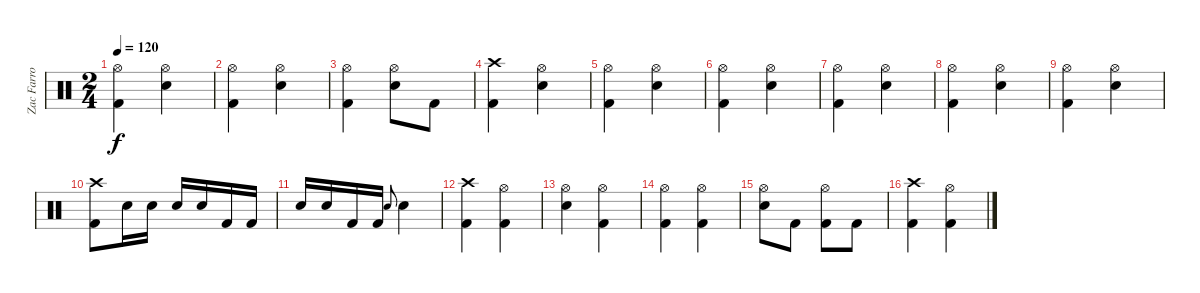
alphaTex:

\track ("Zac Farro" "Zac Farro") {instrument percussion}
\staff {score}
\articulation defaults
\ts (2 4)
\tempo 120
\clef neutral
\ks c
("Kick (hit) 2" "Hi-Hat (open)").4{dy f} ("Electric Snare (hit)" "Hi-Hat (open)").4 |
("Kick (hit) 2" "Hi-Hat (open)").4 ("Electric Snare (hit)" "Hi-Hat (open)").4 |
("Kick (hit) 2" "Hi-Hat (open)").4 ("Electric Snare (hit)" "Hi-Hat (open)").8 "Kick (hit) 2".8 |
("Kick (hit) 2" "Crash high (hit)").4 ("Electric Snare (hit)" "Hi-Hat (open)").4 |
("Kick (hit) 2" "Hi-Hat (open)").4 ("Electric Snare (hit)" "Hi-Hat (open)").4 |
("Kick (hit) 2" "Hi-Hat (open)").4 ("Electric Snare (hit)" "Hi-Hat (open)").4 |
("Kick (hit) 2" "Hi-Hat (open)").4 ("Electric Snare (hit)" "Hi-Hat (open)").4 |
("Kick (hit) 2" "Hi-Hat (open)").4 ("Electric Snare (hit)" "Hi-Hat (open)").4 |
("Kick (hit) 2" "Hi-Hat (open)").4 ("Electric Snare (hit)" "Hi-Hat (open)").4 |
("Kick (hit) 2" "Crash high (hit)").8 "Electric Snare (hit)".16 "Electric Snare (hit)".16 "Electric Snare (hit)".16 "Electric Snare (hit)".16 "Kick (hit) 2".16 "Kick (hit) 2".16 |
"Electric Snare (hit)".16 "Electric Snare (hit)".16 "Kick (hit) 2".16 "Kick (hit) 2".16 "Electric Snare (hit)".8{gr onbeat} "Electric Snare (hit)".4 |
("Kick (hit) 2" "Crash high (hit)").4 ("Kick (hit) 2" "Hi-Hat (open)").4 |
("Electric Snare (hit)" "Hi-Hat (open)").4 ("Kick (hit) 2" "Hi-Hat (open)").4 |
("Kick (hit) 2" "Hi-Hat (open)").4 ("Kick (hit) 2" "Hi-Hat (open)").4 |
("Electric Snare (hit)" "Hi-Hat (open)").8 "Kick (hit) 2".8 ("Kick (hit) 2" "Hi-Hat (open)").8 "Kick (hit) 2".8 |
("Kick (hit) 2" "Crash high (hit)").4 ("Kick (hit) 2" "Hi-Hat (open)").4
